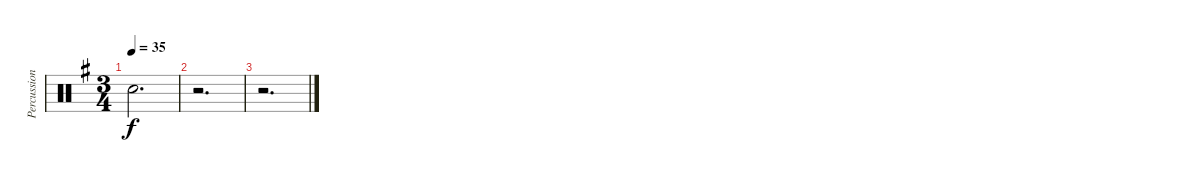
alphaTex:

\track ("Percussion (Thomen Stauch)" "Percussion") {instrument percussion}
\staff {score}
\articulation defaults
\ts (3 4)
\tempo 35
\clef neutral
\ks eminor "Snare (hit)"{t}.2{d dy f}
|
r.2{d} |
r.2{d}
